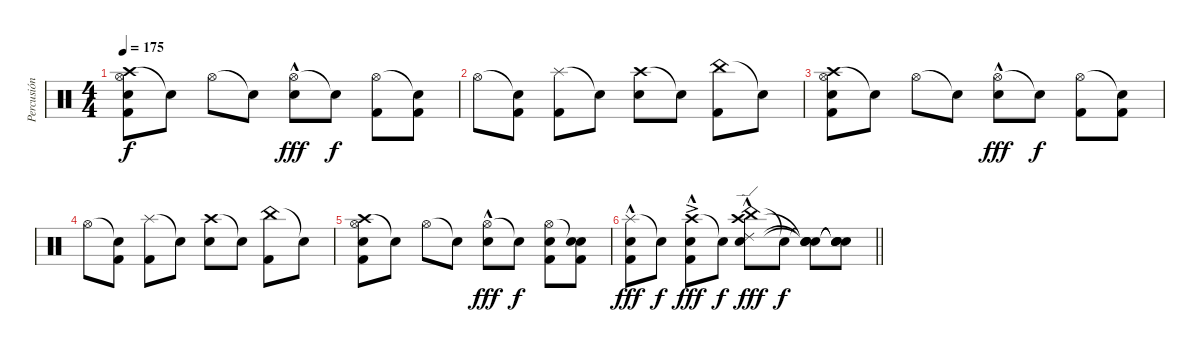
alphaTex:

\track ("Percusión" "Percusión") {instrument percussion}
\staff {score}
\articulation defaults
\ts (4 4)
\tempo 175
\clef neutral
\ks c
("Crash high (hit)" "Hi-Hat (open)" "Electric Snare (hit)" "Kick (hit) 2").8{dy f} "Snare (hit)"{t}.8 "Hi-Hat (open)".8 "Snare (hit)"{t}.8 ("Hi-Hat (open)" "Electric Snare (hit)"{hac}).8{dy fff} "Snare (hit)"{t}.8{dy f} ("Hi-Hat (open)" "Kick (hit) 2").8 ("Snare (hit)"{t} "Kick (hit) 2").8 |
"Hi-Hat (open)".8 ("Snare (hit)"{t} "Kick (hit) 2").8 ("Splash (hit)" "Kick (hit) 2").8 "Snare (hit)"{t}.8 ("Crash high (hit)" "Electric Snare (hit)").8 "Snare (hit)"{t}.8 ("China (hit)" "Kick (hit) 2").8 "Snare (hit)"{t}.8 |
("Crash high (hit)" "Hi-Hat (open)" "Electric Snare (hit)" "Kick (hit) 2").8 "Snare (hit)"{t}.8 "Hi-Hat (open)".8 "Snare (hit)"{t}.8 ("Hi-Hat (open)" "Electric Snare (hit)"{hac}).8{dy fff} "Snare (hit)"{t}.8{dy f} ("Hi-Hat (open)" "Kick (hit) 2").8 ("Snare (hit)"{t} "Kick (hit) 2").8 |
"Hi-Hat (open)".8 ("Snare (hit)"{t} "Kick (hit) 2").8 ("Splash (hit)" "Kick (hit) 2").8 "Snare (hit)"{t}.8 ("Crash high (hit)" "Electric Snare (hit)").8 "Snare (hit)"{t}.8 ("China (hit)" "Kick (hit) 2").8 "Snare (hit)"{t}.8 |
("Crash high (hit)" "Hi-Hat (open)" "Electric Snare (hit)" "Kick (hit) 2").8 "Snare (hit)"{t}.8 "Hi-Hat (open)".8 "Snare (hit)"{t}.8 ("Hi-Hat (open)" "Electric Snare (hit)"{hac}).8{dy fff} "Snare (hit)"{t}.8{dy f} ("Hi-Hat (open)" "Electric Snare (hit)" "Kick (hit) 2").8 ("Snare (hit)"{t} "Electric Snare (hit)" "Kick (hit) 2").8 |
\barLineRight lightlight
("Splash (hit)" "Electric Snare (hit)" "Kick (hit) 2"{hac}).8{dy fff} "Snare (hit)"{t}.8{dy f} ("Crash high (hit)"{ac} "Electric Snare (hit)"{ac} "Kick (hit) 2"{hac}).8{dy fff} "Snare (hit)"{t}.8{dy f} ("China (hit)"{hac} "Ride (edge) 2"{hac} "Crash high (hit)"{hac} "Electric Snare (hit)"{hac}).8{dy fff} "Snare (hit)"{t}.8{dy f} ("Snare (hit)"{t} "Snare (hit)"{t} "Snare (hit)"{t} "Snare (hit)"{t}).8 ("Snare (hit)"{t} "Snare (hit)"{t} "Snare (hit)"{t} "Snare (hit)"{t}).8
